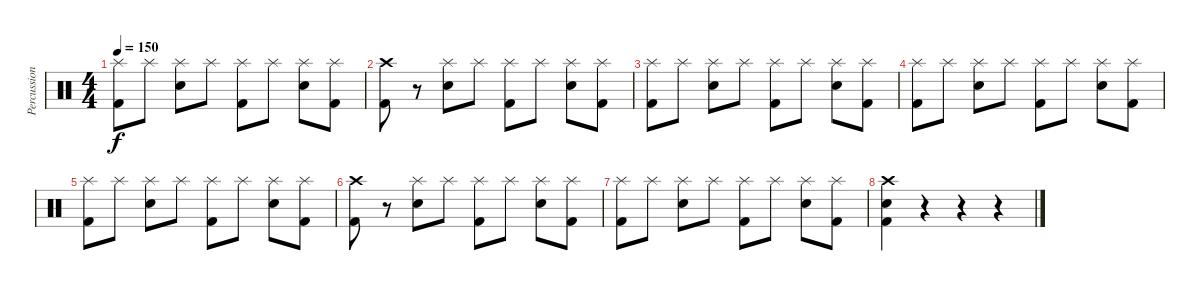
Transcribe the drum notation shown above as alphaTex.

\track ("Percussion" "Percussion") {instrument percussion}
\staff {score}
\articulation defaults
\ts (4 4)
\tempo 150
\clef neutral
\ks c
("Splash (hit)" "Kick (hit) 2").8{dy f} "Splash (hit)".8 ("Splash (hit)" "Electric Snare (hit)").8 "Splash (hit)".8 ("Splash (hit)" "Kick (hit) 2").8 "Splash (hit)".8 ("Splash (hit)" "Electric Snare (hit)").8 ("Splash (hit)" "Kick (hit) 2").8 |
("Crash high (hit)" "Kick (hit) 2").8 r.8 ("Splash (hit)" "Electric Snare (hit)").8 "Splash (hit)".8 ("Splash (hit)" "Kick (hit) 2").8 "Splash (hit)".8 ("Splash (hit)" "Electric Snare (hit)").8 ("Splash (hit)" "Kick (hit) 2").8 |
("Splash (hit)" "Kick (hit) 2").8 "Splash (hit)".8 ("Splash (hit)" "Electric Snare (hit)").8 "Splash (hit)".8 ("Splash (hit)" "Kick (hit) 2").8 "Splash (hit)".8 ("Splash (hit)" "Electric Snare (hit)").8 ("Splash (hit)" "Kick (hit) 2").8 |
("Splash (hit)" "Kick (hit) 2").8 "Splash (hit)".8 ("Splash (hit)" "Electric Snare (hit)").8 "Splash (hit)".8 ("Splash (hit)" "Kick (hit) 2").8 "Splash (hit)".8 ("Splash (hit)" "Electric Snare (hit)").8 ("Splash (hit)" "Kick (hit) 2").8 |
("Splash (hit)" "Kick (hit) 2").8 "Splash (hit)".8 ("Splash (hit)" "Electric Snare (hit)").8 "Splash (hit)".8 ("Splash (hit)" "Kick (hit) 2").8 "Splash (hit)".8 ("Splash (hit)" "Electric Snare (hit)").8 ("Splash (hit)" "Kick (hit) 2").8 |
("Crash high (hit)" "Kick (hit) 2").8 r.8 ("Splash (hit)" "Electric Snare (hit)").8 "Splash (hit)".8 ("Splash (hit)" "Kick (hit) 2").8 "Splash (hit)".8 ("Splash (hit)" "Electric Snare (hit)").8 ("Splash (hit)" "Kick (hit) 2").8 |
("Splash (hit)" "Kick (hit) 2").8 "Splash (hit)".8 ("Splash (hit)" "Electric Snare (hit)").8 "Splash (hit)".8 ("Splash (hit)" "Kick (hit) 2").8 "Splash (hit)".8 ("Splash (hit)" "Electric Snare (hit)").8 ("Splash (hit)" "Kick (hit) 2").8 |
("Crash high (hit)" "Electric Snare (hit)" "Kick (hit) 2").4 r.4 r.4 r.4
